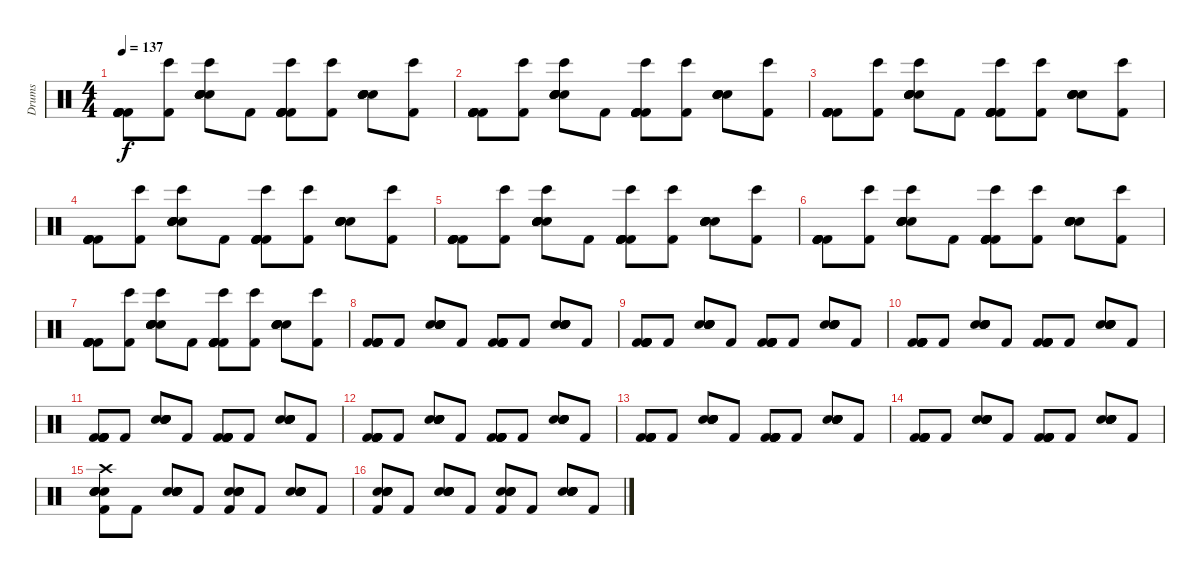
\track ("Drums" "Drums") {instrument percussion}
\staff {score}
\articulation defaults
\ts (4 4)
\tempo 137
\clef neutral
\ks c
("Kick (hit) 2" "Kick (hit) 2" "Kick (hit) 2" "Kick (hit) 2" "Kick (hit) 2").8{dy f} ("Bongo High (hit)" "Kick (hit) 2").8 ("Bongo High (hit)" "Snare (hit) 2" "Snare (hit) 2" "Snare (hit) 2" "Snare (hit) 2" "Snare (hit) 2").8 "Kick (hit) 2".8 ("Bongo High (hit)" "Kick (hit) 2" "Kick (hit) 2" "Kick (hit) 2" "Kick (hit) 2" "Kick (hit) 2").8 ("Bongo High (hit)" "Kick (hit) 2").8 ("Snare (hit) 2" "Snare (hit) 2" "Snare (hit) 2" "Snare (hit) 2" "Snare (hit) 2").8 ("Bongo High (hit)" "Kick (hit) 2").8 |
("Kick (hit) 2" "Kick (hit) 2" "Kick (hit) 2" "Kick (hit) 2" "Kick (hit) 2").8 ("Bongo High (hit)" "Kick (hit) 2").8 ("Bongo High (hit)" "Snare (hit) 2" "Snare (hit) 2" "Snare (hit) 2" "Snare (hit) 2" "Snare (hit) 2").8 "Kick (hit) 2".8 ("Bongo High (hit)" "Kick (hit) 2" "Kick (hit) 2" "Kick (hit) 2" "Kick (hit) 2" "Kick (hit) 2").8 ("Bongo High (hit)" "Kick (hit) 2").8 ("Snare (hit) 2" "Snare (hit) 2" "Snare (hit) 2" "Snare (hit) 2" "Snare (hit) 2").8 ("Bongo High (hit)" "Kick (hit) 2").8 |
("Kick (hit) 2" "Kick (hit) 2" "Kick (hit) 2" "Kick (hit) 2" "Kick (hit) 2").8 ("Bongo High (hit)" "Kick (hit) 2").8 ("Bongo High (hit)" "Snare (hit) 2" "Snare (hit) 2" "Snare (hit) 2" "Snare (hit) 2" "Snare (hit) 2").8 "Kick (hit) 2".8 ("Bongo High (hit)" "Kick (hit) 2" "Kick (hit) 2" "Kick (hit) 2" "Kick (hit) 2" "Kick (hit) 2").8 ("Bongo High (hit)" "Kick (hit) 2").8 ("Snare (hit) 2" "Snare (hit) 2" "Snare (hit) 2" "Snare (hit) 2" "Snare (hit) 2").8 ("Bongo High (hit)" "Kick (hit) 2").8 |
("Kick (hit) 2" "Kick (hit) 2" "Kick (hit) 2" "Kick (hit) 2" "Kick (hit) 2").8 ("Bongo High (hit)" "Kick (hit) 2").8 ("Bongo High (hit)" "Snare (hit) 2" "Snare (hit) 2" "Snare (hit) 2" "Snare (hit) 2" "Snare (hit) 2").8 "Kick (hit) 2".8 ("Bongo High (hit)" "Kick (hit) 2" "Kick (hit) 2" "Kick (hit) 2" "Kick (hit) 2" "Kick (hit) 2").8 ("Bongo High (hit)" "Kick (hit) 2").8 ("Snare (hit) 2" "Snare (hit) 2" "Snare (hit) 2" "Snare (hit) 2" "Snare (hit) 2").8 ("Bongo High (hit)" "Kick (hit) 2").8 |
("Kick (hit) 2" "Kick (hit) 2" "Kick (hit) 2" "Kick (hit) 2" "Kick (hit) 2").8 ("Bongo High (hit)" "Kick (hit) 2").8 ("Bongo High (hit)" "Snare (hit) 2" "Snare (hit) 2" "Snare (hit) 2" "Snare (hit) 2" "Snare (hit) 2").8 "Kick (hit) 2".8 ("Bongo High (hit)" "Kick (hit) 2" "Kick (hit) 2" "Kick (hit) 2" "Kick (hit) 2" "Kick (hit) 2").8 ("Bongo High (hit)" "Kick (hit) 2").8 ("Snare (hit) 2" "Snare (hit) 2" "Snare (hit) 2" "Snare (hit) 2" "Snare (hit) 2").8 ("Bongo High (hit)" "Kick (hit) 2").8 |
("Kick (hit) 2" "Kick (hit) 2" "Kick (hit) 2" "Kick (hit) 2" "Kick (hit) 2").8 ("Bongo High (hit)" "Kick (hit) 2").8 ("Bongo High (hit)" "Snare (hit) 2" "Snare (hit) 2" "Snare (hit) 2" "Snare (hit) 2" "Snare (hit) 2").8 "Kick (hit) 2".8 ("Bongo High (hit)" "Kick (hit) 2" "Kick (hit) 2" "Kick (hit) 2" "Kick (hit) 2" "Kick (hit) 2").8 ("Bongo High (hit)" "Kick (hit) 2").8 ("Snare (hit) 2" "Snare (hit) 2" "Snare (hit) 2" "Snare (hit) 2" "Snare (hit) 2").8 ("Bongo High (hit)" "Kick (hit) 2").8 |
("Kick (hit) 2" "Kick (hit) 2" "Kick (hit) 2" "Kick (hit) 2" "Kick (hit) 2").8 ("Bongo High (hit)" "Kick (hit) 2").8 ("Bongo High (hit)" "Snare (hit) 2" "Snare (hit) 2" "Snare (hit) 2" "Snare (hit) 2" "Snare (hit) 2").8 "Kick (hit) 2".8 ("Bongo High (hit)" "Kick (hit) 2" "Kick (hit) 2" "Kick (hit) 2" "Kick (hit) 2" "Kick (hit) 2").8 ("Bongo High (hit)" "Kick (hit) 2").8 ("Snare (hit) 2" "Snare (hit) 2" "Snare (hit) 2" "Snare (hit) 2" "Snare (hit) 2").8 ("Bongo High (hit)" "Kick (hit) 2").8 |
("Kick (hit) 2" "Kick (hit) 2" "Kick (hit) 2" "Kick (hit) 2" "Kick (hit) 2").8 "Kick (hit) 2".8 ("Snare (hit) 2" "Snare (hit) 2" "Snare (hit) 2" "Snare (hit) 2" "Snare (hit) 2").8 "Kick (hit) 2".8 ("Kick (hit) 2" "Kick (hit) 2" "Kick (hit) 2" "Kick (hit) 2" "Kick (hit) 2").8 "Kick (hit) 2".8 ("Snare (hit) 2" "Snare (hit) 2" "Snare (hit) 2" "Snare (hit) 2" "Snare (hit) 2").8 "Kick (hit) 2".8 |
("Kick (hit) 2" "Kick (hit) 2" "Kick (hit) 2" "Kick (hit) 2" "Kick (hit) 2").8 "Kick (hit) 2".8 ("Snare (hit) 2" "Snare (hit) 2" "Snare (hit) 2" "Snare (hit) 2" "Snare (hit) 2").8 "Kick (hit) 2".8 ("Kick (hit) 2" "Kick (hit) 2" "Kick (hit) 2" "Kick (hit) 2" "Kick (hit) 2").8 "Kick (hit) 2".8 ("Snare (hit) 2" "Snare (hit) 2" "Snare (hit) 2" "Snare (hit) 2" "Snare (hit) 2").8 "Kick (hit) 2".8 |
("Kick (hit) 2" "Kick (hit) 2" "Kick (hit) 2" "Kick (hit) 2" "Kick (hit) 2").8 "Kick (hit) 2".8 ("Snare (hit) 2" "Snare (hit) 2" "Snare (hit) 2" "Snare (hit) 2" "Snare (hit) 2").8 "Kick (hit) 2".8 ("Kick (hit) 2" "Kick (hit) 2" "Kick (hit) 2" "Kick (hit) 2" "Kick (hit) 2").8 "Kick (hit) 2".8 ("Snare (hit) 2" "Snare (hit) 2" "Snare (hit) 2" "Snare (hit) 2" "Snare (hit) 2").8 "Kick (hit) 2".8 |
("Kick (hit) 2" "Kick (hit) 2" "Kick (hit) 2" "Kick (hit) 2" "Kick (hit) 2").8 "Kick (hit) 2".8 ("Snare (hit) 2" "Snare (hit) 2" "Snare (hit) 2" "Snare (hit) 2" "Snare (hit) 2").8 "Kick (hit) 2".8 ("Kick (hit) 2" "Kick (hit) 2" "Kick (hit) 2" "Kick (hit) 2" "Kick (hit) 2").8 "Kick (hit) 2".8 ("Snare (hit) 2" "Snare (hit) 2" "Snare (hit) 2" "Snare (hit) 2" "Snare (hit) 2").8 "Kick (hit) 2".8 |
("Kick (hit) 2" "Kick (hit) 2" "Kick (hit) 2" "Kick (hit) 2" "Kick (hit) 2").8 "Kick (hit) 2".8 ("Snare (hit) 2" "Snare (hit) 2" "Snare (hit) 2" "Snare (hit) 2" "Snare (hit) 2").8 "Kick (hit) 2".8 ("Kick (hit) 2" "Kick (hit) 2" "Kick (hit) 2" "Kick (hit) 2" "Kick (hit) 2").8 "Kick (hit) 2".8 ("Snare (hit) 2" "Snare (hit) 2" "Snare (hit) 2" "Snare (hit) 2" "Snare (hit) 2").8 "Kick (hit) 2".8 |
("Kick (hit) 2" "Kick (hit) 2" "Kick (hit) 2" "Kick (hit) 2" "Kick (hit) 2").8 "Kick (hit) 2".8 ("Snare (hit) 2" "Snare (hit) 2" "Snare (hit) 2" "Snare (hit) 2" "Snare (hit) 2").8 "Kick (hit) 2".8 ("Kick (hit) 2" "Kick (hit) 2" "Kick (hit) 2" "Kick (hit) 2" "Kick (hit) 2").8 "Kick (hit) 2".8 ("Snare (hit) 2" "Snare (hit) 2" "Snare (hit) 2" "Snare (hit) 2" "Snare (hit) 2").8 "Kick (hit) 2".8 |
("Kick (hit) 2" "Kick (hit) 2" "Kick (hit) 2" "Kick (hit) 2" "Kick (hit) 2").8 "Kick (hit) 2".8 ("Snare (hit) 2" "Snare (hit) 2" "Snare (hit) 2" "Snare (hit) 2" "Snare (hit) 2").8 "Kick (hit) 2".8 ("Kick (hit) 2" "Kick (hit) 2" "Kick (hit) 2" "Kick (hit) 2" "Kick (hit) 2").8 "Kick (hit) 2".8 ("Snare (hit) 2" "Snare (hit) 2" "Snare (hit) 2" "Snare (hit) 2" "Snare (hit) 2").8 "Kick (hit) 2".8 |
("Crash high (hit)" "Kick (hit) 2" "Snare (hit) 2" "Snare (hit) 2" "Snare (hit) 2" "Snare (hit) 2").8 "Kick (hit) 2".8 ("Snare (hit) 2" "Snare (hit) 2" "Snare (hit) 2" "Snare (hit) 2" "Snare (hit) 2").8 "Kick (hit) 2".8 ("Kick (hit) 2" "Snare (hit) 2" "Snare (hit) 2" "Snare (hit) 2" "Snare (hit) 2").8 "Kick (hit) 2".8 ("Snare (hit) 2" "Snare (hit) 2" "Snare (hit) 2" "Snare (hit) 2" "Snare (hit) 2").8 "Kick (hit) 2".8 |
("Kick (hit) 2" "Snare (hit) 2" "Snare (hit) 2" "Snare (hit) 2" "Snare (hit) 2").8 "Kick (hit) 2".8 ("Snare (hit) 2" "Snare (hit) 2" "Snare (hit) 2" "Snare (hit) 2" "Snare (hit) 2").8 "Kick (hit) 2".8 ("Kick (hit) 2" "Snare (hit) 2" "Snare (hit) 2" "Snare (hit) 2" "Snare (hit) 2").8 "Kick (hit) 2".8 ("Snare (hit) 2" "Snare (hit) 2" "Snare (hit) 2" "Snare (hit) 2" "Snare (hit) 2").8 "Kick (hit) 2".8
